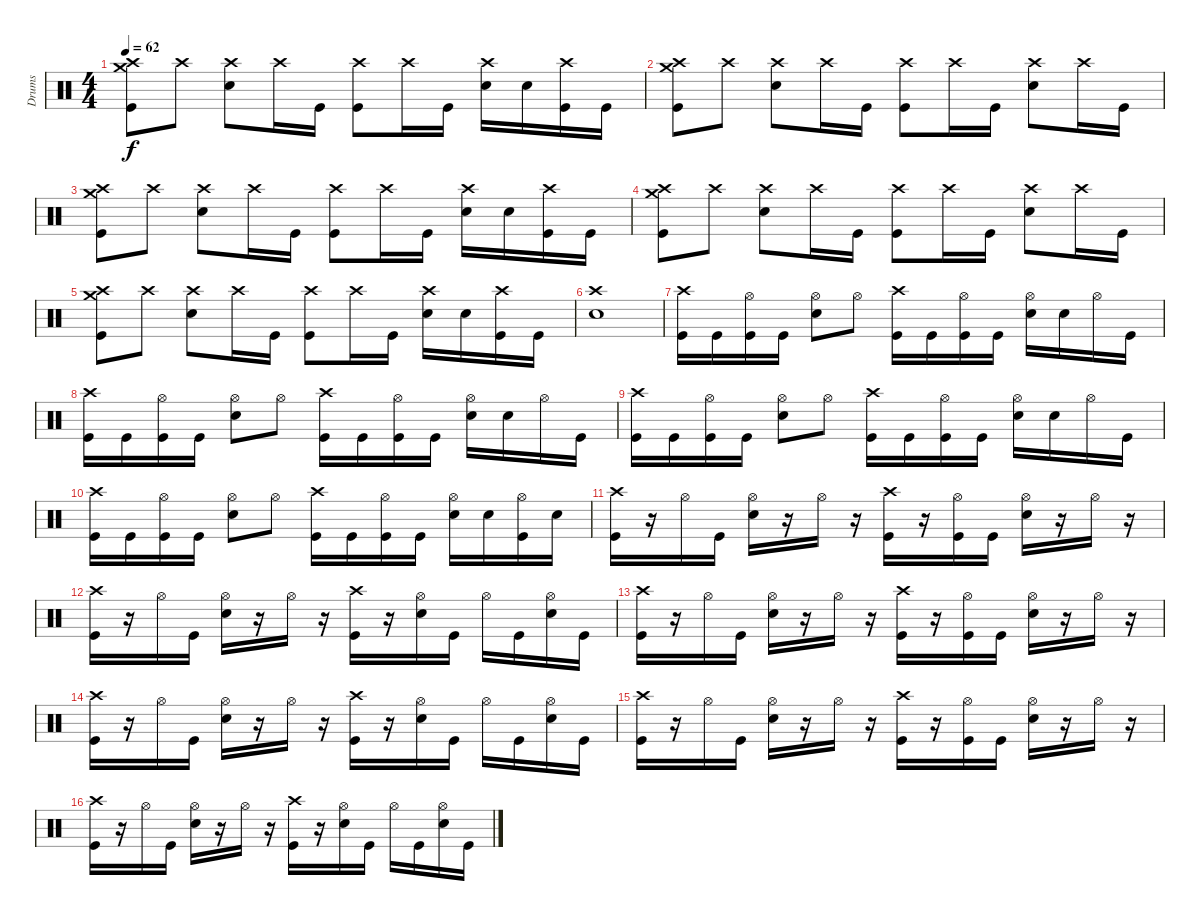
\track ("Drums" "Drums") {instrument percussion}
\staff {score}
\articulation defaults
\ts (4 4)
\tempo 62
\clef neutral
\ks c
("Crash medium (hit)" "Crash high (hit)" "Kick (hit)").8{dy f} "Crash high (hit)".8 ("Crash high (hit)" "Snare (hit) 2").8 "Crash high (hit)".16 "Kick (hit)".16 ("Crash high (hit)" "Kick (hit)").8 "Crash high (hit)".16 "Kick (hit)".16 ("Crash high (hit)" "Snare (hit) 2").16 "Snare (hit) 2".16 ("Crash high (hit)" "Kick (hit)").16 "Kick (hit)".16 |
("Crash medium (hit)" "Crash high (hit)" "Kick (hit)").8 "Crash high (hit)".8 ("Crash high (hit)" "Snare (hit) 2").8 "Crash high (hit)".16 "Kick (hit)".16 ("Crash high (hit)" "Kick (hit)").8 "Crash high (hit)".16 "Kick (hit)".16 ("Crash high (hit)" "Snare (hit) 2").8 "Crash high (hit)".16 "Kick (hit)".16 |
("Crash medium (hit)" "Crash high (hit)" "Kick (hit)").8 "Crash high (hit)".8 ("Crash high (hit)" "Snare (hit) 2").8 "Crash high (hit)".16 "Kick (hit)".16 ("Crash high (hit)" "Kick (hit)").8 "Crash high (hit)".16 "Kick (hit)".16 ("Crash high (hit)" "Snare (hit) 2").16 "Snare (hit) 2".16 ("Crash high (hit)" "Kick (hit)").16 "Kick (hit)".16 |
("Crash medium (hit)" "Crash high (hit)" "Kick (hit)").8 "Crash high (hit)".8 ("Crash high (hit)" "Snare (hit) 2").8 "Crash high (hit)".16 "Kick (hit)".16 ("Crash high (hit)" "Kick (hit)").8 "Crash high (hit)".16 "Kick (hit)".16 ("Crash high (hit)" "Snare (hit) 2").8 "Crash high (hit)".16 "Kick (hit)".16 |
("Crash medium (hit)" "Crash high (hit)" "Kick (hit)").8 "Crash high (hit)".8 ("Crash high (hit)" "Snare (hit) 2").8 "Crash high (hit)".16 "Kick (hit)".16 ("Crash high (hit)" "Kick (hit)").8 "Crash high (hit)".16 "Kick (hit)".16 ("Crash high (hit)" "Snare (hit) 2").16 "Snare (hit) 2".16 ("Crash high (hit)" "Kick (hit)").16 "Kick (hit)".16 |
("Crash high (hit)" "Snare (hit) 2").1 |
("Crash high (hit)" "Kick (hit)").16 "Kick (hit)".16 ("Hi-Hat (open)" "Kick (hit)").16 "Kick (hit)".16 ("Hi-Hat (open)" "Snare (hit) 2").8 "Hi-Hat (open)".8 ("Crash high (hit)" "Kick (hit)").16 "Kick (hit)".16 ("Hi-Hat (open)" "Kick (hit)").16 "Kick (hit)".16 ("Hi-Hat (open)" "Snare (hit) 2").16 "Snare (hit) 2".16 "Hi-Hat (open)".16 "Kick (hit)".16 |
("Crash high (hit)" "Kick (hit)").16 "Kick (hit)".16 ("Hi-Hat (open)" "Kick (hit)").16 "Kick (hit)".16 ("Hi-Hat (open)" "Snare (hit) 2").8 "Hi-Hat (open)".8 ("Crash high (hit)" "Kick (hit)").16 "Kick (hit)".16 ("Hi-Hat (open)" "Kick (hit)").16 "Kick (hit)".16 ("Hi-Hat (open)" "Snare (hit) 2").16 "Snare (hit) 2".16 "Hi-Hat (open)".16 "Kick (hit)".16 |
("Crash high (hit)" "Kick (hit)").16 "Kick (hit)".16 ("Hi-Hat (open)" "Kick (hit)").16 "Kick (hit)".16 ("Hi-Hat (open)" "Snare (hit) 2").8 "Hi-Hat (open)".8 ("Crash high (hit)" "Kick (hit)").16 "Kick (hit)".16 ("Hi-Hat (open)" "Kick (hit)").16 "Kick (hit)".16 ("Hi-Hat (open)" "Snare (hit) 2").16 "Snare (hit) 2".16 "Hi-Hat (open)".16 "Kick (hit)".16 |
("Crash high (hit)" "Kick (hit)").16 "Kick (hit)".16 ("Hi-Hat (open)" "Kick (hit)").16 "Kick (hit)".16 ("Hi-Hat (open)" "Snare (hit) 2").8 "Hi-Hat (open)".8 ("Crash high (hit)" "Kick (hit)").16 "Kick (hit)".16 ("Hi-Hat (open)" "Kick (hit)").16 "Kick (hit)".16 ("Hi-Hat (open)" "Snare (hit) 2").16 "Snare (hit) 2".16 ("Hi-Hat (open)" "Kick (hit)").16 "Snare (hit) 2".16 |
("Crash high (hit)" "Kick (hit)").16 r.16 "Hi-Hat (open)".16 "Kick (hit)".16 ("Hi-Hat (open)" "Snare (hit) 2").16 r.16 "Hi-Hat (open)".16 r.16 ("Crash high (hit)" "Kick (hit)").16 r.16 ("Hi-Hat (open)" "Kick (hit)").16 "Kick (hit)".16 ("Hi-Hat (open)" "Snare (hit) 2").16 r.16 "Hi-Hat (open)".16 r.16 |
("Crash high (hit)" "Kick (hit)").16 r.16 "Hi-Hat (open)".16 "Kick (hit)".16 ("Hi-Hat (open)" "Snare (hit) 2").16 r.16 "Hi-Hat (open)".16 r.16 ("Crash high (hit)" "Kick (hit)").16 r.16 ("Hi-Hat (open)" "Snare (hit) 2").16 "Kick (hit)".16 "Hi-Hat (open)".16 "Kick (hit)".16 ("Hi-Hat (open)" "Snare (hit) 2").16 "Kick (hit)".16 |
("Crash high (hit)" "Kick (hit)").16 r.16 "Hi-Hat (open)".16 "Kick (hit)".16 ("Hi-Hat (open)" "Snare (hit) 2").16 r.16 "Hi-Hat (open)".16 r.16 ("Crash high (hit)" "Kick (hit)").16 r.16 ("Hi-Hat (open)" "Kick (hit)").16 "Kick (hit)".16 ("Hi-Hat (open)" "Snare (hit) 2").16 r.16 "Hi-Hat (open)".16 r.16 |
("Crash high (hit)" "Kick (hit)").16 r.16 "Hi-Hat (open)".16 "Kick (hit)".16 ("Hi-Hat (open)" "Snare (hit) 2").16 r.16 "Hi-Hat (open)".16 r.16 ("Crash high (hit)" "Kick (hit)").16 r.16 ("Hi-Hat (open)" "Snare (hit) 2").16 "Kick (hit)".16 "Hi-Hat (open)".16 "Kick (hit)".16 ("Hi-Hat (open)" "Snare (hit) 2").16 "Kick (hit)".16 |
("Crash high (hit)" "Kick (hit)").16 r.16 "Hi-Hat (open)".16 "Kick (hit)".16 ("Hi-Hat (open)" "Snare (hit) 2").16 r.16 "Hi-Hat (open)".16 r.16 ("Crash high (hit)" "Kick (hit)").16 r.16 ("Hi-Hat (open)" "Kick (hit)").16 "Kick (hit)".16 ("Hi-Hat (open)" "Snare (hit) 2").16 r.16 "Hi-Hat (open)".16 r.16 |
("Crash high (hit)" "Kick (hit)").16 r.16 "Hi-Hat (open)".16 "Kick (hit)".16 ("Hi-Hat (open)" "Snare (hit) 2").16 r.16 "Hi-Hat (open)".16 r.16 ("Crash high (hit)" "Kick (hit)").16 r.16 ("Hi-Hat (open)" "Snare (hit) 2").16 "Kick (hit)".16 "Hi-Hat (open)".16 "Kick (hit)".16 ("Hi-Hat (open)" "Snare (hit) 2").16 "Kick (hit)".16
